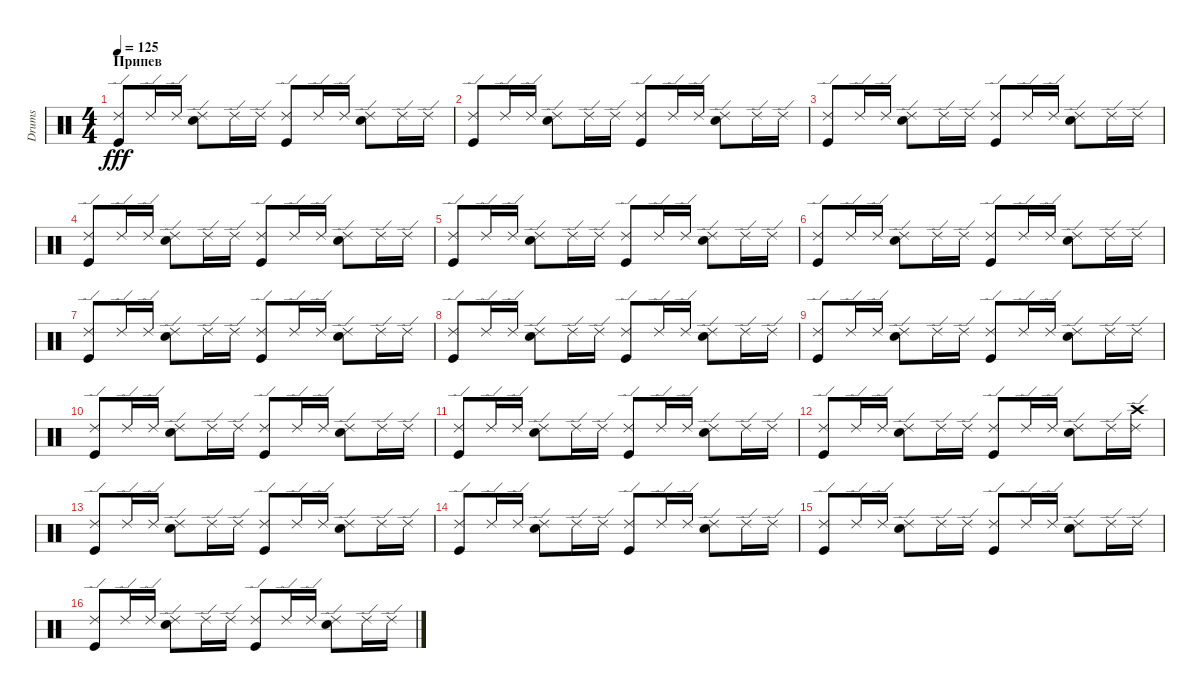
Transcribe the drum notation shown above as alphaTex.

\track ("Drums" "Drums") {instrument percussion}
\staff {score}
\articulation defaults
\ts (4 4)
\section ("" "Припев")
\tempo 125
\clef neutral
\ks c
("Ride (edge) 2" "Kick (hit)").8{dy fff} "Ride (edge) 2".16 "Ride (edge) 2".16 ("Ride (edge) 2" "Snare (hit) 2").8 "Ride (edge) 2".16 "Ride (edge) 2".16 ("Ride (edge) 2" "Kick (hit)").8 "Ride (edge) 2".16 "Ride (edge) 2".16 ("Ride (edge) 2" "Snare (hit) 2").8 "Ride (edge) 2".16 "Ride (edge) 2".16 |
("Ride (edge) 2" "Kick (hit)").8 "Ride (edge) 2".16 "Ride (edge) 2".16 ("Ride (edge) 2" "Snare (hit) 2").8 "Ride (edge) 2".16 "Ride (edge) 2".16 ("Ride (edge) 2" "Kick (hit)").8 "Ride (edge) 2".16 "Ride (edge) 2".16 ("Ride (edge) 2" "Snare (hit) 2").8 "Ride (edge) 2".16 "Ride (edge) 2".16 |
("Ride (edge) 2" "Kick (hit)").8 "Ride (edge) 2".16 "Ride (edge) 2".16 ("Ride (edge) 2" "Snare (hit) 2").8 "Ride (edge) 2".16 "Ride (edge) 2".16 ("Ride (edge) 2" "Kick (hit)").8 "Ride (edge) 2".16 "Ride (edge) 2".16 ("Ride (edge) 2" "Snare (hit) 2").8 "Ride (edge) 2".16 "Ride (edge) 2".16 |
("Ride (edge) 2" "Kick (hit)").8 "Ride (edge) 2".16 "Ride (edge) 2".16 ("Ride (edge) 2" "Snare (hit) 2").8 "Ride (edge) 2".16 "Ride (edge) 2".16 ("Ride (edge) 2" "Kick (hit)").8 "Ride (edge) 2".16 "Ride (edge) 2".16 ("Ride (edge) 2" "Snare (hit) 2").8 "Ride (edge) 2".16 "Ride (edge) 2".16 |
("Ride (edge) 2" "Kick (hit)").8 "Ride (edge) 2".16 "Ride (edge) 2".16 ("Ride (edge) 2" "Snare (hit) 2").8 "Ride (edge) 2".16 "Ride (edge) 2".16 ("Ride (edge) 2" "Kick (hit)").8 "Ride (edge) 2".16 "Ride (edge) 2".16 ("Ride (edge) 2" "Snare (hit) 2").8 "Ride (edge) 2".16 "Ride (edge) 2".16 |
("Ride (edge) 2" "Kick (hit)").8 "Ride (edge) 2".16 "Ride (edge) 2".16 ("Ride (edge) 2" "Snare (hit) 2").8 "Ride (edge) 2".16 "Ride (edge) 2".16 ("Ride (edge) 2" "Kick (hit)").8 "Ride (edge) 2".16 "Ride (edge) 2".16 ("Ride (edge) 2" "Snare (hit) 2").8 "Ride (edge) 2".16 "Ride (edge) 2".16 |
("Ride (edge) 2" "Kick (hit)").8 "Ride (edge) 2".16 "Ride (edge) 2".16 ("Ride (edge) 2" "Snare (hit) 2").8 "Ride (edge) 2".16 "Ride (edge) 2".16 ("Ride (edge) 2" "Kick (hit)").8 "Ride (edge) 2".16 "Ride (edge) 2".16 ("Ride (edge) 2" "Snare (hit) 2").8 "Ride (edge) 2".16 "Ride (edge) 2".16 |
("Ride (edge) 2" "Kick (hit)").8 "Ride (edge) 2".16 "Ride (edge) 2".16 ("Ride (edge) 2" "Snare (hit) 2").8 "Ride (edge) 2".16 "Ride (edge) 2".16 ("Ride (edge) 2" "Kick (hit)").8 "Ride (edge) 2".16 "Ride (edge) 2".16 ("Ride (edge) 2" "Snare (hit) 2").8 "Ride (edge) 2".16 "Ride (edge) 2".16 |
("Ride (edge) 2" "Kick (hit)").8 "Ride (edge) 2".16 "Ride (edge) 2".16 ("Ride (edge) 2" "Snare (hit) 2").8 "Ride (edge) 2".16 "Ride (edge) 2".16 ("Ride (edge) 2" "Kick (hit)").8 "Ride (edge) 2".16 "Ride (edge) 2".16 ("Ride (edge) 2" "Snare (hit) 2").8 "Ride (edge) 2".16 "Ride (edge) 2".16 |
("Ride (edge) 2" "Kick (hit)").8 "Ride (edge) 2".16 "Ride (edge) 2".16 ("Ride (edge) 2" "Snare (hit) 2").8 "Ride (edge) 2".16 "Ride (edge) 2".16 ("Ride (edge) 2" "Kick (hit)").8 "Ride (edge) 2".16 "Ride (edge) 2".16 ("Ride (edge) 2" "Snare (hit) 2").8 "Ride (edge) 2".16 "Ride (edge) 2".16 |
("Ride (edge) 2" "Kick (hit)").8 "Ride (edge) 2".16 "Ride (edge) 2".16 ("Ride (edge) 2" "Snare (hit) 2").8 "Ride (edge) 2".16 "Ride (edge) 2".16 ("Ride (edge) 2" "Kick (hit)").8 "Ride (edge) 2".16 "Ride (edge) 2".16 ("Ride (edge) 2" "Snare (hit) 2").8 "Ride (edge) 2".16 "Ride (edge) 2".16 |
("Ride (edge) 2" "Kick (hit)").8 "Ride (edge) 2".16 "Ride (edge) 2".16 ("Ride (edge) 2" "Snare (hit) 2").8 "Ride (edge) 2".16 "Ride (edge) 2".16 ("Ride (edge) 2" "Kick (hit)").8 "Ride (edge) 2".16 "Ride (edge) 2".16 ("Ride (edge) 2" "Snare (hit) 2").8 "Ride (edge) 2".16 ("Ride (edge) 2" "Crash high (hit)").16 |
("Ride (edge) 2" "Kick (hit)").8 "Ride (edge) 2".16 "Ride (edge) 2".16 ("Ride (edge) 2" "Snare (hit) 2").8 "Ride (edge) 2".16 "Ride (edge) 2".16 ("Ride (edge) 2" "Kick (hit)").8 "Ride (edge) 2".16 "Ride (edge) 2".16 ("Ride (edge) 2" "Snare (hit) 2").8 "Ride (edge) 2".16 "Ride (edge) 2".16 |
("Ride (edge) 2" "Kick (hit)").8 "Ride (edge) 2".16 "Ride (edge) 2".16 ("Ride (edge) 2" "Snare (hit) 2").8 "Ride (edge) 2".16 "Ride (edge) 2".16 ("Ride (edge) 2" "Kick (hit)").8 "Ride (edge) 2".16 "Ride (edge) 2".16 ("Ride (edge) 2" "Snare (hit) 2").8 "Ride (edge) 2".16 "Ride (edge) 2".16 |
("Ride (edge) 2" "Kick (hit)").8 "Ride (edge) 2".16 "Ride (edge) 2".16 ("Ride (edge) 2" "Snare (hit) 2").8 "Ride (edge) 2".16 "Ride (edge) 2".16 ("Ride (edge) 2" "Kick (hit)").8 "Ride (edge) 2".16 "Ride (edge) 2".16 ("Ride (edge) 2" "Snare (hit) 2").8 "Ride (edge) 2".16 "Ride (edge) 2".16 |
("Ride (edge) 2" "Kick (hit)").8 "Ride (edge) 2".16 "Ride (edge) 2".16 ("Ride (edge) 2" "Snare (hit) 2").8 "Ride (edge) 2".16 "Ride (edge) 2".16 ("Ride (edge) 2" "Kick (hit)").8 "Ride (edge) 2".16 "Ride (edge) 2".16 ("Ride (edge) 2" "Snare (hit) 2").8 "Ride (edge) 2".16 "Ride (edge) 2".16
